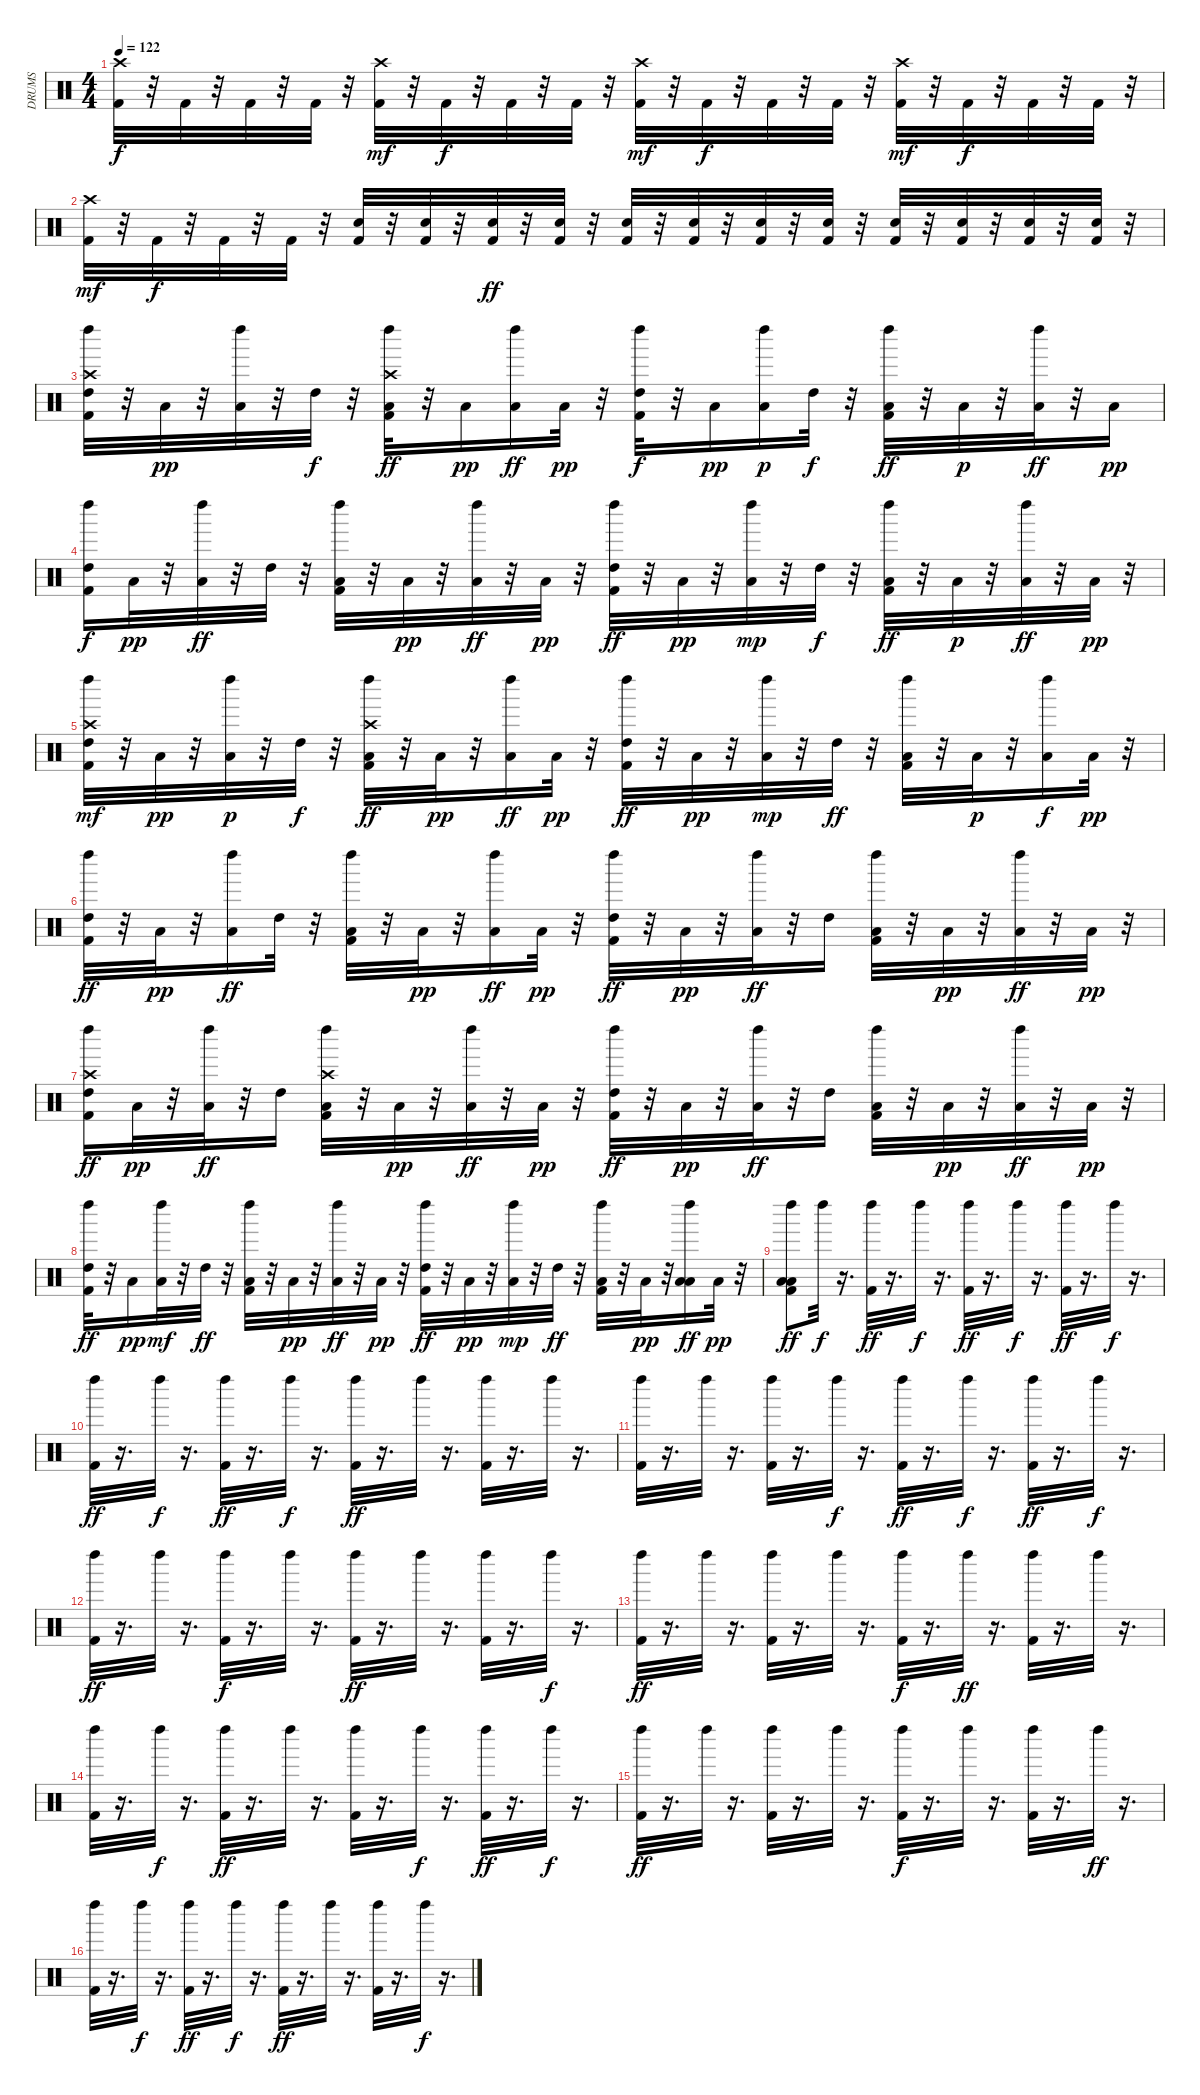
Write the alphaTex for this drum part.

\track ("DRUMS" "DRUMS") {instrument percussion}
\staff {score}
\articulation defaults
\ts (4 4)
\tempo 122
\clef neutral
\ks c
("Crash high (hit)" "Kick (hit) 2").32{dy f} r.32 "Kick (hit) 2".32 r.32 "Kick (hit) 2".32 r.32 "Kick (hit) 2".32 r.32 ("Crash high (hit)" "Kick (hit) 2").32{dy mf} r.32 "Kick (hit) 2".32{dy f} r.32 "Kick (hit) 2".32 r.32 "Kick (hit) 2".32 r.32 ("Crash high (hit)" "Kick (hit) 2").32{dy mf} r.32 "Kick (hit) 2".32{dy f} r.32 "Kick (hit) 2".32 r.32 "Kick (hit) 2".32 r.32 ("Crash high (hit)" "Kick (hit) 2").32{dy mf} r.32 "Kick (hit) 2".32{dy f} r.32 "Kick (hit) 2".32 r.32 "Kick (hit) 2".32 r.32 |
("Crash high (hit)" "Kick (hit) 2").32{dy mf} r.32 "Kick (hit) 2".32{dy f} r.32 "Kick (hit) 2".32 r.32 "Kick (hit) 2".32 r.32 ("Snare (hit) 2" "Kick (hit) 2").32 r.32 ("Snare (hit) 2" "Kick (hit) 2").32 r.32 ("Snare (hit) 2" "Kick (hit) 2").32{dy ff} r.32 ("Snare (hit) 2" "Kick (hit) 2").32 r.32 ("Snare (hit) 2" "Kick (hit) 2").32 r.32 ("Snare (hit) 2" "Kick (hit) 2").32 r.32 ("Snare (hit) 2" "Kick (hit) 2").32 r.32 ("Snare (hit) 2" "Kick (hit) 2").32 r.32 ("Snare (hit) 2" "Kick (hit) 2").32 r.32 ("Snare (hit) 2" "Kick (hit) 2").32 r.32 ("Snare (hit) 2" "Kick (hit) 2").32 r.32 ("Snare (hit) 2" "Kick (hit) 2").32 r.32 |
("High Tom (hit)" "Left Maraca (hit)" "Crash high (hit)" "Kick (hit) 2").32 r.32 "Low Tom (hit)".32{dy pp} r.32 ("Low Tom (hit)" "Left Maraca (hit)").32 r.32 "High Tom (hit)".32{dy f} r.32 ("Low Tom (hit)" "Left Maraca (hit)" "Crash high (hit)" "Kick (hit) 2").32{dy ff} r.32 "Low Tom (hit)".16{dy pp} ("Low Floor Tom (hit)" "Left Maraca (hit)").16{dy ff} "Low Tom (hit)".32{dy pp} r.32 ("High Tom (hit)" "Left Maraca (hit)" "Kick (hit) 2").32{dy f} r.32 "Low Tom (hit)".16{dy pp} ("Low Tom (hit)" "Left Maraca (hit)").16{dy p} "High Tom (hit)".32{dy f} r.32 ("Low Tom (hit)" "Left Maraca (hit)" "Kick (hit) 2").32{dy ff} r.32 "Low Tom (hit)".32{dy p} r.32 ("Low Floor Tom (hit)" "Left Maraca (hit)").32{dy ff} r.32 "Low Tom (hit)".16{dy pp} |
("High Tom (hit)" "Left Maraca (hit)" "Kick (hit) 2").16{dy f} "Low Tom (hit)".32{dy pp} r.32 ("Low Tom (hit)" "Left Maraca (hit)").32{dy ff} r.32 "High Tom (hit)".32 r.32 ("Low Tom (hit)" "Left Maraca (hit)" "Kick (hit) 2").32 r.32 "Low Tom (hit)".32{dy pp} r.32 ("Low Floor Tom (hit)" "Left Maraca (hit)").32{dy ff} r.32 "Low Tom (hit)".32{dy pp} r.32 ("High Tom (hit)" "Left Maraca (hit)" "Kick (hit) 2").32{dy ff} r.32 "Low Tom (hit)".32{dy pp} r.32 ("Low Tom (hit)" "Left Maraca (hit)").32{dy mp} r.32 "High Tom (hit)".32{dy f} r.32 ("Low Tom (hit)" "Left Maraca (hit)" "Kick (hit) 2").32{dy ff} r.32 "Low Tom (hit)".32{dy p} r.32 ("Low Floor Tom (hit)" "Left Maraca (hit)").32{dy ff} r.32 "Low Tom (hit)".32{dy pp} r.32 |
("High Tom (hit)" "Left Maraca (hit)" "Crash high (hit)" "Kick (hit) 2").32{dy mf} r.32 "Low Tom (hit)".32{dy pp} r.32 ("Low Tom (hit)" "Left Maraca (hit)").32{dy p} r.32 "High Tom (hit)".32{dy f} r.32 ("Low Tom (hit)" "Left Maraca (hit)" "Crash high (hit)" "Kick (hit) 2").32{dy ff} r.32 "Low Tom (hit)".32{dy pp} r.32 ("Low Floor Tom (hit)" "Left Maraca (hit)").16{dy ff} "Low Tom (hit)".32{dy pp} r.32 ("High Tom (hit)" "Left Maraca (hit)" "Kick (hit) 2").32{dy ff} r.32 "Low Tom (hit)".32{dy pp} r.32 ("Low Tom (hit)" "Left Maraca (hit)").32{dy mp} r.32 "High Tom (hit)".32{dy ff} r.32 ("Low Tom (hit)" "Left Maraca (hit)" "Kick (hit) 2").32 r.32 "Low Tom (hit)".32{dy p} r.32 ("Low Floor Tom (hit)" "Left Maraca (hit)").16{dy f} "Low Tom (hit)".32{dy pp} r.32 |
("High Tom (hit)" "Left Maraca (hit)" "Kick (hit) 2").32{dy ff} r.32 "Low Tom (hit)".32{dy pp} r.32 ("Low Tom (hit)" "Left Maraca (hit)").16{dy ff} "High Tom (hit)".32 r.32 ("Low Tom (hit)" "Left Maraca (hit)" "Kick (hit) 2").32 r.32 "Low Tom (hit)".32{dy pp} r.32 ("Low Floor Tom (hit)" "Left Maraca (hit)").16{dy ff} "Low Tom (hit)".32{dy pp} r.32 ("High Tom (hit)" "Left Maraca (hit)" "Kick (hit) 2").32{dy ff} r.32 "Low Tom (hit)".32{dy pp} r.32 ("Low Tom (hit)" "Left Maraca (hit)").32{dy ff} r.32 "High Tom (hit)".16 ("Low Tom (hit)" "Left Maraca (hit)" "Kick (hit) 2").32 r.32 "Low Tom (hit)".32{dy pp} r.32 ("Low Floor Tom (hit)" "Left Maraca (hit)").32{dy ff} r.32 "Low Tom (hit)".32{dy pp} r.32 |
("High Tom (hit)" "Left Maraca (hit)" "Crash high (hit)" "Kick (hit) 2").16{dy ff} "Low Tom (hit)".32{dy pp} r.32 ("Low Tom (hit)" "Left Maraca (hit)").32{dy ff} r.32 "High Tom (hit)".16 ("Low Tom (hit)" "Left Maraca (hit)" "Crash high (hit)" "Kick (hit) 2").32 r.32 "Low Tom (hit)".32{dy pp} r.32 ("Low Floor Tom (hit)" "Left Maraca (hit)").32{dy ff} r.32 "Low Tom (hit)".32{dy pp} r.32 ("High Tom (hit)" "Left Maraca (hit)" "Kick (hit) 2").32{dy ff} r.32 "Low Tom (hit)".32{dy pp} r.32 ("Low Tom (hit)" "Left Maraca (hit)").32{dy ff} r.32 "High Tom (hit)".16 ("Low Tom (hit)" "Left Maraca (hit)" "Kick (hit) 2").32 r.32 "Low Tom (hit)".32{dy pp} r.32 ("Low Floor Tom (hit)" "Left Maraca (hit)").32{dy ff} r.32 "Low Tom (hit)".32{dy pp} r.32 |
("High Tom (hit)" "Left Maraca (hit)" "Kick (hit) 2").32{dy ff} r.32 "Low Tom (hit)".16{dy pp} ("Low Tom (hit)" "Left Maraca (hit)").32{dy mf} r.32 "High Tom (hit)".32{dy ff} r.32 ("Low Tom (hit)" "Left Maraca (hit)" "Kick (hit) 2").32 r.32 "Low Tom (hit)".32{dy pp} r.32 ("Low Floor Tom (hit)" "Left Maraca (hit)").32{dy ff} r.32 "Low Tom (hit)".32{dy pp} r.32 ("High Tom (hit)" "Left Maraca (hit)" "Kick (hit) 2").32{dy ff} r.32 "Low Tom (hit)".32{dy pp} r.32 ("Low Tom (hit)" "Left Maraca (hit)").32{dy mp} r.32 "High Tom (hit)".32{dy ff} r.32 ("Low Tom (hit)" "Left Maraca (hit)" "Kick (hit) 2").32 r.32 "Low Tom (hit)".32{dy pp} r.32 ("Low Tom (hit)" "Low Floor Tom (hit)" "Left Maraca (hit)").16{dy ff} "Low Tom (hit)".32{dy pp} r.32 |
("Low Floor Tom (hit)" "Low Floor Tom (hit)" "Left Maraca (hit)" "Kick (hit) 2").8{dy ff} "Left Maraca (hit)".32{dy f} r.16{d} ("Left Maraca (hit)" "Kick (hit) 2").32{dy ff} r.16{d} "Left Maraca (hit)".32{dy f} r.16{d} ("Left Maraca (hit)" "Kick (hit) 2").32{dy ff} r.16{d} "Left Maraca (hit)".32{dy f} r.16{d} ("Left Maraca (hit)" "Kick (hit) 2").32{dy ff} r.16{d} "Left Maraca (hit)".32{dy f} r.16{d} |
("Left Maraca (hit)" "Kick (hit) 2").32{dy ff} r.16{d} "Left Maraca (hit)".32{dy f} r.16{d} ("Left Maraca (hit)" "Kick (hit) 2").32{dy ff} r.16{d} "Left Maraca (hit)".32{dy f} r.16{d} ("Left Maraca (hit)" "Kick (hit) 2").32{dy ff} r.16{d} "Left Maraca (hit)".32 r.16{d} ("Left Maraca (hit)" "Kick (hit) 2").32 r.16{d} "Left Maraca (hit)".32 r.16{d} |
("Left Maraca (hit)" "Kick (hit) 2").32 r.16{d} "Left Maraca (hit)".32 r.16{d} ("Left Maraca (hit)" "Kick (hit) 2").32 r.16{d} "Left Maraca (hit)".32{dy f} r.16{d} ("Left Maraca (hit)" "Kick (hit) 2").32{dy ff} r.16{d} "Left Maraca (hit)".32{dy f} r.16{d} ("Left Maraca (hit)" "Kick (hit) 2").32{dy ff} r.16{d} "Left Maraca (hit)".32{dy f} r.16{d} |
("Left Maraca (hit)" "Kick (hit) 2").32{dy ff} r.16{d} "Left Maraca (hit)".32 r.16{d} ("Left Maraca (hit)" "Kick (hit) 2").32{dy f} r.16{d} "Left Maraca (hit)".32 r.16{d} ("Left Maraca (hit)" "Kick (hit) 2").32{dy ff} r.16{d} "Left Maraca (hit)".32 r.16{d} ("Left Maraca (hit)" "Kick (hit) 2").32 r.16{d} "Left Maraca (hit)".32{dy f} r.16{d} |
("Left Maraca (hit)" "Kick (hit) 2").32{dy ff} r.16{d} "Left Maraca (hit)".32 r.16{d} ("Left Maraca (hit)" "Kick (hit) 2").32 r.16{d} "Left Maraca (hit)".32 r.16{d} ("Left Maraca (hit)" "Kick (hit) 2").32{dy f} r.16{d} "Left Maraca (hit)".32{dy ff} r.16{d} ("Left Maraca (hit)" "Kick (hit) 2").32 r.16{d} "Left Maraca (hit)".32 r.16{d} |
("Left Maraca (hit)" "Kick (hit) 2").32 r.16{d} "Left Maraca (hit)".32{dy f} r.16{d} ("Left Maraca (hit)" "Kick (hit) 2").32{dy ff} r.16{d} "Left Maraca (hit)".32 r.16{d} ("Left Maraca (hit)" "Kick (hit) 2").32 r.16{d} "Left Maraca (hit)".32{dy f} r.16{d} ("Left Maraca (hit)" "Kick (hit) 2").32{dy ff} r.16{d} "Left Maraca (hit)".32{dy f} r.16{d} |
("Left Maraca (hit)" "Kick (hit) 2").32{dy ff} r.16{d} "Left Maraca (hit)".32 r.16{d} ("Left Maraca (hit)" "Kick (hit) 2").32 r.16{d} "Left Maraca (hit)".32 r.16{d} ("Left Maraca (hit)" "Kick (hit) 2").32{dy f} r.16{d} "Left Maraca (hit)".32 r.16{d} ("Left Maraca (hit)" "Kick (hit) 2").32 r.16{d} "Left Maraca (hit)".32{dy ff} r.16{d} |
("Left Maraca (hit)" "Kick (hit) 2").32 r.16{d} "Left Maraca (hit)".32{dy f} r.16{d} ("Left Maraca (hit)" "Kick (hit) 2").32{dy ff} r.16{d} "Left Maraca (hit)".32{dy f} r.16{d} ("Left Maraca (hit)" "Kick (hit) 2").32{dy ff} r.16{d} "Left Maraca (hit)".32 r.16{d} ("Left Maraca (hit)" "Kick (hit) 2").32 r.16{d} "Left Maraca (hit)".32{dy f} r.16{d}
